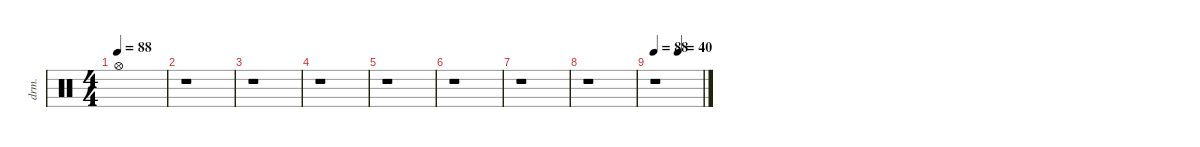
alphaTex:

\defaultSystemsLayout 4
\hideDynamics
\bracketExtendMode nobrackets
\otherSystemsTrackNameOrientation horizontal
\track ("Drums" "drm.") {instrument percussion}
\staff {score}
\articulation defaults
\ts (4 4)
\tempo 88
\clef neutral
\ks c "Hi-Hat (open)".1{dy f}
|
r.1 |
r.1 |
r.1 |
r.1 |
r.1 |
r.1 |
r.1 |
\tempo 88
\tempo (40 0.5)
r.1
